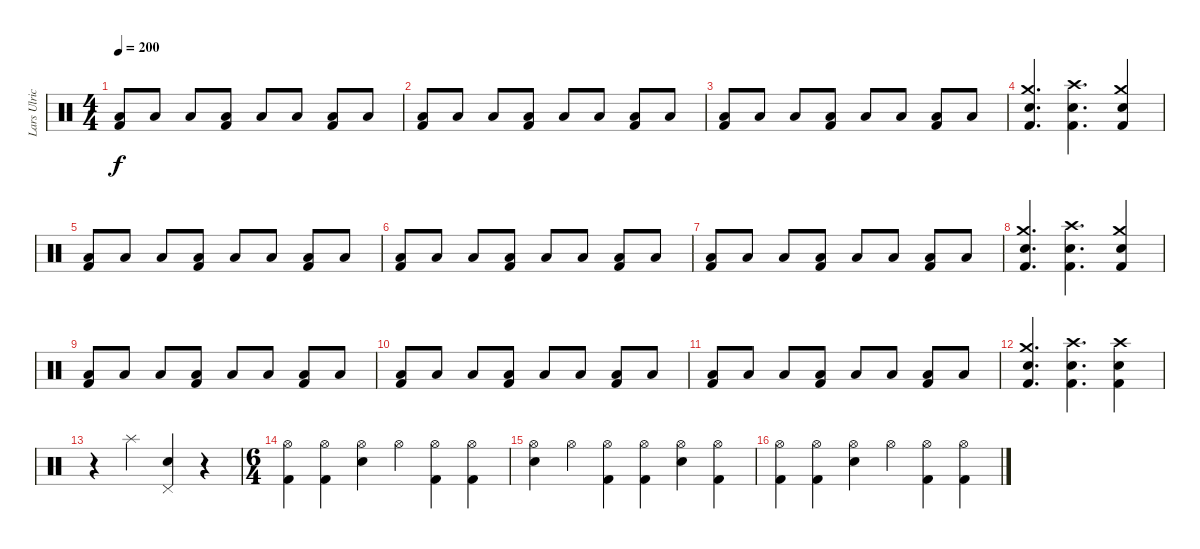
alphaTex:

\track ("Lars Ulrich" "Lars Ulric") {instrument percussion}
\staff {score}
\articulation defaults
\ts (4 4)
\tempo 200
\clef neutral
\ks c
("Low Floor Tom (hit)" "Kick (hit) 2").8{dy f} "Low Floor Tom (hit)".8 "Low Floor Tom (hit)".8 ("Low Floor Tom (hit)" "Kick (hit) 2").8 "Low Floor Tom (hit)".8 "Low Floor Tom (hit)".8 ("Low Floor Tom (hit)" "Kick (hit) 2").8 "Low Floor Tom (hit)".8 |
("Low Floor Tom (hit)" "Kick (hit) 2").8 "Low Floor Tom (hit)".8 "Low Floor Tom (hit)".8 ("Low Floor Tom (hit)" "Kick (hit) 2").8 "Low Floor Tom (hit)".8 "Low Floor Tom (hit)".8 ("Low Floor Tom (hit)" "Kick (hit) 2").8 "Low Floor Tom (hit)".8 |
("Low Floor Tom (hit)" "Kick (hit) 2").8 "Low Floor Tom (hit)".8 "Low Floor Tom (hit)".8 ("Low Floor Tom (hit)" "Kick (hit) 2").8 "Low Floor Tom (hit)".8 "Low Floor Tom (hit)".8 ("Low Floor Tom (hit)" "Kick (hit) 2").8 "Low Floor Tom (hit)".8 |
("Crash medium (hit)" "Electric Snare (hit)" "Kick (hit) 2").4{d} ("Crash high (hit)" "Electric Snare (hit)" "Kick (hit) 2").4{d} ("Crash medium (hit)" "Electric Snare (hit)" "Kick (hit) 2").4 |
("Low Floor Tom (hit)" "Kick (hit) 2").8 "Low Floor Tom (hit)".8 "Low Floor Tom (hit)".8 ("Low Floor Tom (hit)" "Kick (hit) 2").8 "Low Floor Tom (hit)".8 "Low Floor Tom (hit)".8 ("Low Floor Tom (hit)" "Kick (hit) 2").8 "Low Floor Tom (hit)".8 |
("Low Floor Tom (hit)" "Kick (hit) 2").8 "Low Floor Tom (hit)".8 "Low Floor Tom (hit)".8 ("Low Floor Tom (hit)" "Kick (hit) 2").8 "Low Floor Tom (hit)".8 "Low Floor Tom (hit)".8 ("Low Floor Tom (hit)" "Kick (hit) 2").8 "Low Floor Tom (hit)".8 |
("Low Floor Tom (hit)" "Kick (hit) 2").8 "Low Floor Tom (hit)".8 "Low Floor Tom (hit)".8 ("Low Floor Tom (hit)" "Kick (hit) 2").8 "Low Floor Tom (hit)".8 "Low Floor Tom (hit)".8 ("Low Floor Tom (hit)" "Kick (hit) 2").8 "Low Floor Tom (hit)".8 |
("Crash medium (hit)" "Electric Snare (hit)" "Kick (hit) 2").4{d} ("Crash high (hit)" "Electric Snare (hit)" "Kick (hit) 2").4{d} ("Crash medium (hit)" "Electric Snare (hit)" "Kick (hit) 2").4 |
("Low Floor Tom (hit)" "Kick (hit) 2").8 "Low Floor Tom (hit)".8 "Low Floor Tom (hit)".8 ("Low Floor Tom (hit)" "Kick (hit) 2").8 "Low Floor Tom (hit)".8 "Low Floor Tom (hit)".8 ("Low Floor Tom (hit)" "Kick (hit) 2").8 "Low Floor Tom (hit)".8 |
("Low Floor Tom (hit)" "Kick (hit) 2").8 "Low Floor Tom (hit)".8 "Low Floor Tom (hit)".8 ("Low Floor Tom (hit)" "Kick (hit) 2").8 "Low Floor Tom (hit)".8 "Low Floor Tom (hit)".8 ("Low Floor Tom (hit)" "Kick (hit) 2").8 "Low Floor Tom (hit)".8 |
("Low Floor Tom (hit)" "Kick (hit) 2").8 "Low Floor Tom (hit)".8 "Low Floor Tom (hit)".8 ("Low Floor Tom (hit)" "Kick (hit) 2").8 "Low Floor Tom (hit)".8 "Low Floor Tom (hit)".8 ("Low Floor Tom (hit)" "Kick (hit) 2").8 "Low Floor Tom (hit)".8 |
("Crash medium (hit)" "Electric Snare (hit)" "Kick (hit) 2").4{d} ("Crash high (hit)" "Electric Snare (hit)" "Kick (hit) 2").4{d} ("Crash high (hit)" "Electric Snare (hit)" "Kick (hit) 2").4 |
r.4 "Splash (hit)".4 ("Pedal Hi-Hat (hit)" "Electric Snare (hit)").4 r.4 |
\ts (6 4)
("Hi-Hat (open)" "Kick (hit) 2").4 ("Hi-Hat (open)" "Kick (hit) 2").4 ("Hi-Hat (open)" "Electric Snare (hit)").4 "Hi-Hat (open)".4 ("Hi-Hat (open)" "Kick (hit) 2").4 ("Hi-Hat (open)" "Kick (hit) 2").4 |
("Hi-Hat (open)" "Electric Snare (hit)").4 "Hi-Hat (open)".4 ("Hi-Hat (open)" "Kick (hit) 2").4 ("Hi-Hat (open)" "Kick (hit) 2").4 ("Hi-Hat (open)" "Electric Snare (hit)").4 ("Hi-Hat (open)" "Kick (hit) 2").4 |
("Hi-Hat (open)" "Kick (hit) 2").4 ("Hi-Hat (open)" "Kick (hit) 2").4 ("Hi-Hat (open)" "Electric Snare (hit)").4 "Hi-Hat (open)".4 ("Hi-Hat (open)" "Kick (hit) 2").4 ("Hi-Hat (open)" "Kick (hit) 2").4
